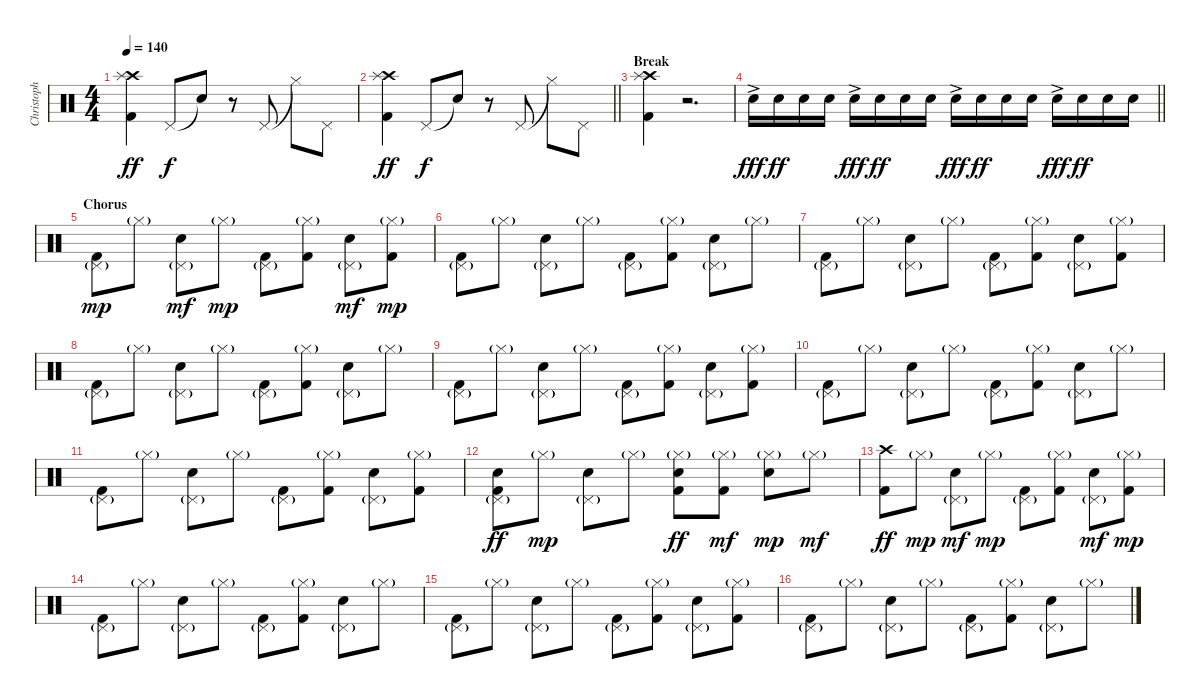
\track ("Christoph" "Christoph") {instrument percussion}
\staff {score}
\articulation defaults
\ts (4 4)
\tempo 140
\clef neutral
\ks c
("Crash high (hit)" "Splash (hit)" "Kick (hit) 2").4{dy ff} "Pedal Hi-Hat (hit)".8{dy f} "Snare (hit)"{t}.8 r.8 "Pedal Hi-Hat (hit)".8 "Hi-Hat (closed)"{t}.8 "Pedal Hi-Hat (hit)".8 |
\barLineRight lightlight
("Crash high (hit)" "Splash (hit)" "Kick (hit) 2").4{dy ff} "Pedal Hi-Hat (hit)".8{dy f} "Snare (hit)"{t}.8 r.8 "Pedal Hi-Hat (hit)".8 "Hi-Hat (closed)"{t}.8 "Pedal Hi-Hat (hit)".8 |
\section ("" "Break")
("Crash high (hit)" "Splash (hit)" "Kick (hit) 2").4 r.2{d} |
\barLineRight lightlight "Electric Snare (hit)"{ac}.16{dy fff} "Electric Snare (hit)".16{dy ff} "Electric Snare (hit)".16 "Electric Snare (hit)".16 "Electric Snare (hit)"{ac}.16{dy fff} "Electric Snare (hit)".16{dy ff} "Electric Snare (hit)".16 "Electric Snare (hit)".16 "Electric Snare (hit)"{ac}.16{dy fff} "Electric Snare (hit)".16{dy ff} "Electric Snare (hit)".16 "Electric Snare (hit)".16 "Electric Snare (hit)"{ac}.16{dy fff} "Electric Snare (hit)".16{dy ff} "Electric Snare (hit)".16 "Electric Snare (hit)".16
|
\section ("" "Chorus")
("Pedal Hi-Hat (hit)"{g} "Kick (hit) 2").8{dy mp} "Hi-Hat (closed)"{g}.8 ("Pedal Hi-Hat (hit)"{g} "Electric Snare (hit)").8{dy mf} "Hi-Hat (closed)"{g}.8{dy mp} ("Pedal Hi-Hat (hit)"{g} "Kick (hit) 2").8 ("Hi-Hat (closed)"{g} "Kick (hit) 2").8 ("Pedal Hi-Hat (hit)"{g} "Electric Snare (hit)").8{dy mf} ("Hi-Hat (closed)"{g} "Kick (hit) 2").8{dy mp} |
("Pedal Hi-Hat (hit)"{g} "Kick (hit) 2").8 "Hi-Hat (closed)"{g}.8 ("Pedal Hi-Hat (hit)"{g} "Electric Snare (hit)").8 "Hi-Hat (closed)"{g}.8 ("Pedal Hi-Hat (hit)"{g} "Kick (hit) 2").8 ("Hi-Hat (closed)"{g} "Kick (hit) 2").8 ("Pedal Hi-Hat (hit)"{g} "Electric Snare (hit)").8 "Hi-Hat (closed)"{g}.8 |
("Pedal Hi-Hat (hit)"{g} "Kick (hit) 2").8 "Hi-Hat (closed)"{g}.8 ("Pedal Hi-Hat (hit)"{g} "Electric Snare (hit)").8 "Hi-Hat (closed)"{g}.8 ("Pedal Hi-Hat (hit)"{g} "Kick (hit) 2").8 ("Hi-Hat (closed)"{g} "Kick (hit) 2").8 ("Pedal Hi-Hat (hit)"{g} "Electric Snare (hit)").8 ("Hi-Hat (closed)"{g} "Kick (hit) 2").8 |
("Pedal Hi-Hat (hit)"{g} "Kick (hit) 2").8 "Hi-Hat (closed)"{g}.8 ("Pedal Hi-Hat (hit)"{g} "Electric Snare (hit)").8 "Hi-Hat (closed)"{g}.8 ("Pedal Hi-Hat (hit)"{g} "Kick (hit) 2").8 ("Hi-Hat (closed)"{g} "Kick (hit) 2").8 ("Pedal Hi-Hat (hit)"{g} "Electric Snare (hit)").8 "Hi-Hat (closed)"{g}.8 |
("Pedal Hi-Hat (hit)"{g} "Kick (hit) 2").8 "Hi-Hat (closed)"{g}.8 ("Pedal Hi-Hat (hit)"{g} "Electric Snare (hit)").8 "Hi-Hat (closed)"{g}.8 ("Pedal Hi-Hat (hit)"{g} "Kick (hit) 2").8 ("Hi-Hat (closed)"{g} "Kick (hit) 2").8 ("Pedal Hi-Hat (hit)"{g} "Electric Snare (hit)").8 ("Hi-Hat (closed)"{g} "Kick (hit) 2").8 |
("Pedal Hi-Hat (hit)"{g} "Kick (hit) 2").8 "Hi-Hat (closed)"{g}.8 ("Pedal Hi-Hat (hit)"{g} "Electric Snare (hit)").8 "Hi-Hat (closed)"{g}.8 ("Pedal Hi-Hat (hit)"{g} "Kick (hit) 2").8 ("Hi-Hat (closed)"{g} "Kick (hit) 2").8 ("Pedal Hi-Hat (hit)"{g} "Electric Snare (hit)").8 "Hi-Hat (closed)"{g}.8 |
("Pedal Hi-Hat (hit)"{g} "Kick (hit) 2").8 "Hi-Hat (closed)"{g}.8 ("Pedal Hi-Hat (hit)"{g} "Electric Snare (hit)").8 "Hi-Hat (closed)"{g}.8 ("Pedal Hi-Hat (hit)"{g} "Kick (hit) 2").8 ("Hi-Hat (closed)"{g} "Kick (hit) 2").8 ("Pedal Hi-Hat (hit)"{g} "Electric Snare (hit)").8 ("Hi-Hat (closed)"{g} "Kick (hit) 2").8 |
("Pedal Hi-Hat (hit)"{g} "Electric Snare (hit)" "Kick (hit) 2").8{dy ff} "Hi-Hat (closed)"{g}.8{dy mp} ("Pedal Hi-Hat (hit)"{g} "Electric Snare (hit)").8 "Hi-Hat (closed)"{g}.8 ("Hi-Hat (closed)"{g} "Electric Snare (hit)" "Kick (hit) 2").8{dy ff} ("Hi-Hat (closed)"{g} "Kick (hit) 2").8{dy mf} ("Hi-Hat (closed)"{g} "Electric Snare (hit)").8{dy mp} "Hi-Hat (closed)"{g}.8{dy mf} |
("Crash high (hit)" "Kick (hit) 2").8{dy ff} "Hi-Hat (closed)"{g}.8{dy mp} ("Pedal Hi-Hat (hit)"{g} "Electric Snare (hit)").8{dy mf} "Hi-Hat (closed)"{g}.8{dy mp} ("Pedal Hi-Hat (hit)"{g} "Kick (hit) 2").8 ("Hi-Hat (closed)"{g} "Kick (hit) 2").8 ("Pedal Hi-Hat (hit)"{g} "Electric Snare (hit)").8{dy mf} ("Hi-Hat (closed)"{g} "Kick (hit) 2").8{dy mp} |
("Pedal Hi-Hat (hit)"{g} "Kick (hit) 2").8 "Hi-Hat (closed)"{g}.8 ("Pedal Hi-Hat (hit)"{g} "Electric Snare (hit)").8 "Hi-Hat (closed)"{g}.8 ("Pedal Hi-Hat (hit)"{g} "Kick (hit) 2").8 ("Hi-Hat (closed)"{g} "Kick (hit) 2").8 ("Pedal Hi-Hat (hit)"{g} "Electric Snare (hit)").8 "Hi-Hat (closed)"{g}.8 |
("Pedal Hi-Hat (hit)"{g} "Kick (hit) 2").8 "Hi-Hat (closed)"{g}.8 ("Pedal Hi-Hat (hit)"{g} "Electric Snare (hit)").8 "Hi-Hat (closed)"{g}.8 ("Pedal Hi-Hat (hit)"{g} "Kick (hit) 2").8 ("Hi-Hat (closed)"{g} "Kick (hit) 2").8 ("Pedal Hi-Hat (hit)"{g} "Electric Snare (hit)").8 ("Hi-Hat (closed)"{g} "Kick (hit) 2").8 |
("Pedal Hi-Hat (hit)"{g} "Kick (hit) 2").8 "Hi-Hat (closed)"{g}.8 ("Pedal Hi-Hat (hit)"{g} "Electric Snare (hit)").8 "Hi-Hat (closed)"{g}.8 ("Pedal Hi-Hat (hit)"{g} "Kick (hit) 2").8 ("Hi-Hat (closed)"{g} "Kick (hit) 2").8 ("Pedal Hi-Hat (hit)"{g} "Electric Snare (hit)").8 "Hi-Hat (closed)"{g}.8
